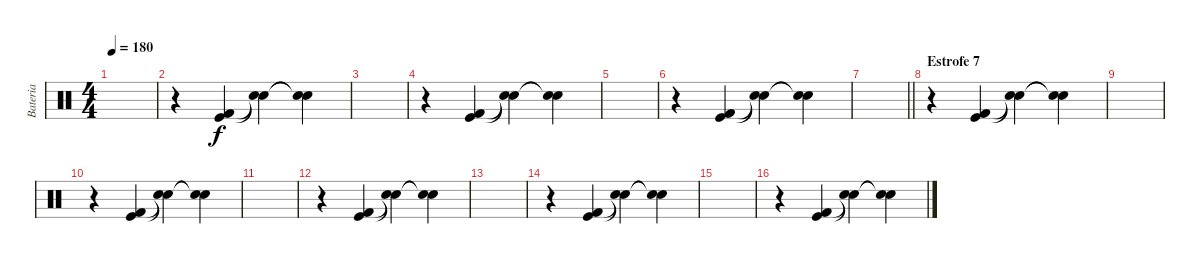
\track ("Bateria" "Bateria") {instrument percussion}
\staff {score}
\articulation defaults
\ts (4 4)
\tempo 180
\clef neutral
\ks c
|
r.4 ("Kick (hit) 2" "Kick (hit)").4 ("Snare (hit)"{t} "Snare (hit)"{t}).4 ("Snare (hit)"{t} "Snare (hit)"{t}).4 |
|
r.4 ("Kick (hit) 2" "Kick (hit)").4 ("Snare (hit)"{t} "Snare (hit)"{t}).4 ("Snare (hit)"{t} "Snare (hit)"{t}).4 |
|
r.4 ("Kick (hit) 2" "Kick (hit)").4 ("Snare (hit)"{t} "Snare (hit)"{t}).4 ("Snare (hit)"{t} "Snare (hit)"{t}).4 |
\barLineRight lightlight
|
\section ("" "Estrofe 7")
r.4 ("Kick (hit) 2" "Kick (hit)").4 ("Snare (hit)"{t} "Snare (hit)"{t}).4 ("Snare (hit)"{t} "Snare (hit)"{t}).4 |
|
r.4 ("Kick (hit) 2" "Kick (hit)").4 ("Snare (hit)"{t} "Snare (hit)"{t}).4 ("Snare (hit)"{t} "Snare (hit)"{t}).4 |
|
r.4 ("Kick (hit) 2" "Kick (hit)").4 ("Snare (hit)"{t} "Snare (hit)"{t}).4 ("Snare (hit)"{t} "Snare (hit)"{t}).4 |
|
r.4 ("Kick (hit) 2" "Kick (hit)").4 ("Snare (hit)"{t} "Snare (hit)"{t}).4 ("Snare (hit)"{t} "Snare (hit)"{t}).4 |
|
r.4 ("Kick (hit) 2" "Kick (hit)").4 ("Snare (hit)"{t} "Snare (hit)"{t}).4 ("Snare (hit)"{t} "Snare (hit)"{t}).4
